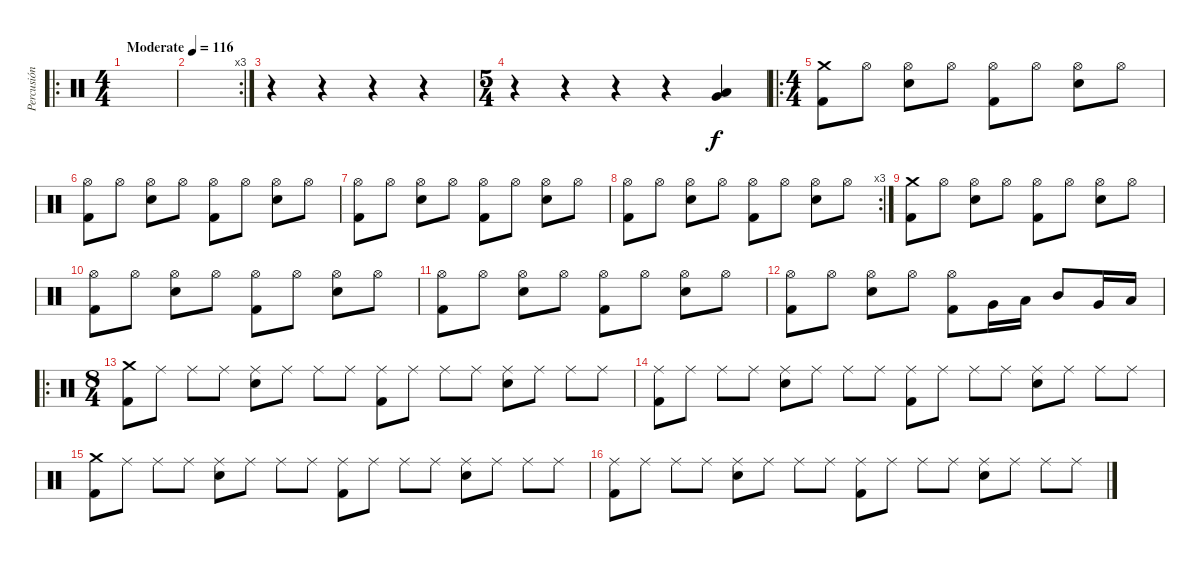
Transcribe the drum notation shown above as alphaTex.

\track ("Percusión" "Percusión") {instrument percussion}
\staff {score}
\articulation defaults
\ro
\ts (4 4)
\tempo (116 "Moderate")
\clef neutral
\ks c
|
\rc 3
|
r.4 r.4 r.4 r.4 |
\ts (5 4)
r.4 r.4 r.4 r.4 ("Very Low Tom (hit)" "Low Floor Tom (hit)").4 |
\ro
\ts (4 4)
("Crash medium (hit)" "Kick (hit) 2").8 "Hi-Hat (open)".8 ("Hi-Hat (open)" "Electric Snare (hit)").8 "Hi-Hat (open)".8 ("Hi-Hat (open)" "Kick (hit) 2").8 "Hi-Hat (open)".8 ("Hi-Hat (open)" "Electric Snare (hit)").8 "Hi-Hat (open)".8 |
("Hi-Hat (open)" "Kick (hit) 2").8 "Hi-Hat (open)".8 ("Hi-Hat (open)" "Electric Snare (hit)").8 "Hi-Hat (open)".8 ("Hi-Hat (open)" "Kick (hit) 2").8 "Hi-Hat (open)".8 ("Hi-Hat (open)" "Electric Snare (hit)").8 "Hi-Hat (open)".8 |
("Hi-Hat (open)" "Kick (hit) 2").8 "Hi-Hat (open)".8 ("Hi-Hat (open)" "Electric Snare (hit)").8 "Hi-Hat (open)".8 ("Hi-Hat (open)" "Kick (hit) 2").8 "Hi-Hat (open)".8 ("Hi-Hat (open)" "Electric Snare (hit)").8 "Hi-Hat (open)".8 |
\rc 3
("Hi-Hat (open)" "Kick (hit) 2").8 "Hi-Hat (open)".8 ("Hi-Hat (open)" "Electric Snare (hit)").8 "Hi-Hat (open)".8 ("Hi-Hat (open)" "Kick (hit) 2").8 "Hi-Hat (open)".8 ("Hi-Hat (open)" "Electric Snare (hit)").8 "Hi-Hat (open)".8 |
("Crash medium (hit)" "Kick (hit) 2").8 "Hi-Hat (open)".8 ("Hi-Hat (open)" "Electric Snare (hit)").8 "Hi-Hat (open)".8 ("Hi-Hat (open)" "Kick (hit) 2").8 "Hi-Hat (open)".8 ("Hi-Hat (open)" "Electric Snare (hit)").8 "Hi-Hat (open)".8 |
("Hi-Hat (open)" "Kick (hit) 2").8 "Hi-Hat (open)".8 ("Hi-Hat (open)" "Electric Snare (hit)").8 "Hi-Hat (open)".8 ("Hi-Hat (open)" "Kick (hit) 2").8 "Hi-Hat (open)".8 ("Hi-Hat (open)" "Electric Snare (hit)").8 "Hi-Hat (open)".8 |
("Hi-Hat (open)" "Kick (hit) 2").8 "Hi-Hat (open)".8 ("Hi-Hat (open)" "Electric Snare (hit)").8 "Hi-Hat (open)".8 ("Hi-Hat (open)" "Kick (hit) 2").8 "Hi-Hat (open)".8 ("Hi-Hat (open)" "Electric Snare (hit)").8 "Hi-Hat (open)".8 |
("Hi-Hat (open)" "Kick (hit) 2").8 "Hi-Hat (open)".8 ("Hi-Hat (open)" "Electric Snare (hit)").8 "Hi-Hat (open)".8 ("Hi-Hat (open)" "Kick (hit) 2").8 "Very Low Tom (hit)".16 "Low Tom (hit)".16 "Mid Tom (hit)".8 "Very Low Tom (hit)".16 "Low Tom (hit)".16 |
\ro
\ts (8 4)
("Crash medium (hit)" "Kick (hit) 2").8 "Ride (middle)".8 "Ride (middle)".8 "Ride (middle)".8 ("Ride (middle)" "Electric Snare (hit)").8 "Ride (middle)".8 "Ride (middle)".8 "Ride (middle)".8 ("Ride (middle)" "Kick (hit) 2").8 "Ride (middle)".8 "Ride (middle)".8 "Ride (middle)".8 ("Ride (middle)" "Electric Snare (hit)").8 "Ride (middle)".8 "Ride (middle)".8 "Ride (middle)".8 |
("Ride (middle)" "Kick (hit) 2").8 "Ride (middle)".8 "Ride (middle)".8 "Ride (middle)".8 ("Ride (middle)" "Electric Snare (hit)").8 "Ride (middle)".8 "Ride (middle)".8 "Ride (middle)".8 ("Ride (middle)" "Kick (hit) 2").8 "Ride (middle)".8 "Ride (middle)".8 "Ride (middle)".8 ("Ride (middle)" "Electric Snare (hit)").8 "Ride (middle)".8 "Ride (middle)".8 "Ride (middle)".8 |
("Crash medium (hit)" "Kick (hit) 2").8 "Ride (middle)".8 "Ride (middle)".8 "Ride (middle)".8 ("Ride (middle)" "Electric Snare (hit)").8 "Ride (middle)".8 "Ride (middle)".8 "Ride (middle)".8 ("Ride (middle)" "Kick (hit) 2").8 "Ride (middle)".8 "Ride (middle)".8 "Ride (middle)".8 ("Ride (middle)" "Electric Snare (hit)").8 "Ride (middle)".8 "Ride (middle)".8 "Ride (middle)".8 |
("Ride (middle)" "Kick (hit) 2").8 "Ride (middle)".8 "Ride (middle)".8 "Ride (middle)".8 ("Ride (middle)" "Electric Snare (hit)").8 "Ride (middle)".8 "Ride (middle)".8 "Ride (middle)".8 ("Ride (middle)" "Kick (hit) 2").8 "Ride (middle)".8 "Ride (middle)".8 "Ride (middle)".8 ("Ride (middle)" "Electric Snare (hit)").8 "Ride (middle)".8 "Ride (middle)".8 "Ride (middle)".8
